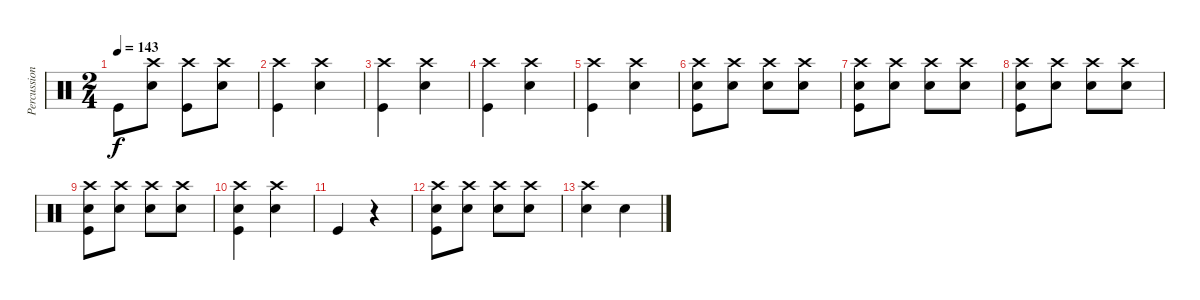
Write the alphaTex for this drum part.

\track ("Percussion" "Percussion") {instrument percussion}
\staff {score}
\articulation defaults
\ts (2 4)
\tempo 143
\clef neutral
\ks c "Kick (hit)".8{dy f}
("Snare (hit) 2" "Crash high (hit)").8 ("Kick (hit)" "Crash high (hit)").8 ("Snare (hit) 2" "Crash high (hit)").8 |
("Kick (hit)" "Crash high (hit)").4 ("Snare (hit) 2" "Crash high (hit)").4 |
("Kick (hit)" "Crash high (hit)").4 ("Snare (hit) 2" "Crash high (hit)").4 |
("Kick (hit)" "Crash high (hit)").4 ("Snare (hit) 2" "Crash high (hit)").4 |
("Kick (hit)" "Crash high (hit)").4 ("Snare (hit) 2" "Crash high (hit)").4 |
("Snare (hit) 2" "Kick (hit)" "Crash high (hit)").8 ("Snare (hit) 2" "Crash high (hit)").8 ("Snare (hit) 2" "Crash high (hit)").8 ("Snare (hit) 2" "Crash high (hit)").8 |
("Snare (hit) 2" "Kick (hit)" "Crash high (hit)").8 ("Snare (hit) 2" "Crash high (hit)").8 ("Snare (hit) 2" "Crash high (hit)").8 ("Snare (hit) 2" "Crash high (hit)").8 |
("Snare (hit) 2" "Kick (hit)" "Crash high (hit)").8 ("Snare (hit) 2" "Crash high (hit)").8 ("Snare (hit) 2" "Crash high (hit)").8 ("Snare (hit) 2" "Crash high (hit)").8 |
("Snare (hit) 2" "Kick (hit)" "Crash high (hit)").8 ("Snare (hit) 2" "Crash high (hit)").8 ("Snare (hit) 2" "Crash high (hit)").8 ("Snare (hit) 2" "Crash high (hit)").8 |
("Snare (hit) 2" "Kick (hit)" "Crash high (hit)").4 ("Snare (hit) 2" "Crash high (hit)").4 |
"Kick (hit)".4 r.4 |
("Snare (hit) 2" "Kick (hit)" "Crash high (hit)").8 ("Snare (hit) 2" "Crash high (hit)").8 ("Snare (hit) 2" "Crash high (hit)").8 ("Snare (hit) 2" "Crash high (hit)").8 |
("Snare (hit) 2" "Crash high (hit)").4 "Snare (hit)"{x}.4
